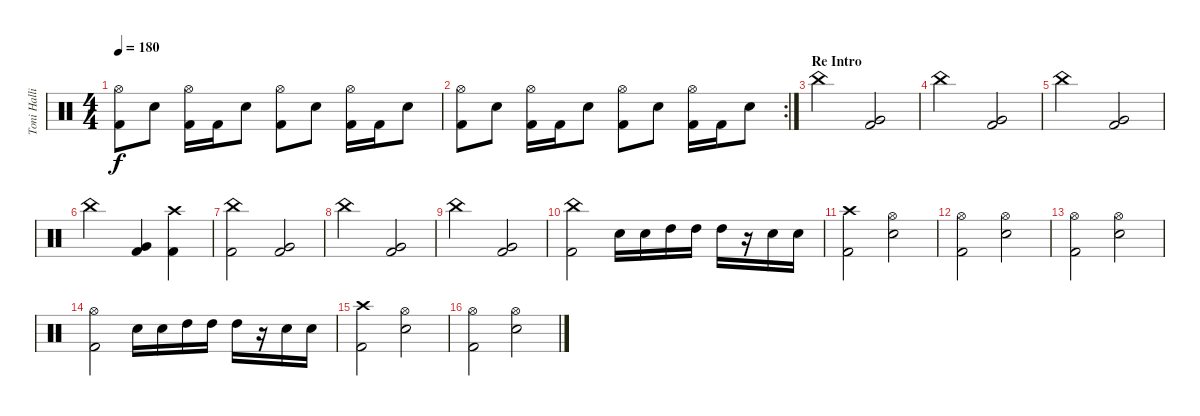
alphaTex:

\track ("Toni Hallio" "Toni Halli") {instrument percussion}
\staff {score}
\articulation defaults
\ts (4 4)
\tempo 180
\clef neutral
\ks c
("Hi-Hat (open)" "Kick (hit) 2").8{dy f} "Electric Snare (hit)".8 ("Hi-Hat (open)" "Kick (hit) 2").16 "Kick (hit) 2".16 "Electric Snare (hit)".8 ("Hi-Hat (open)" "Kick (hit) 2").8 "Electric Snare (hit)".8 ("Hi-Hat (open)" "Kick (hit) 2").16 "Kick (hit) 2".16 "Electric Snare (hit)".8 |
\rc 2
("Hi-Hat (open)" "Kick (hit) 2").8 "Electric Snare (hit)".8 ("Hi-Hat (open)" "Kick (hit) 2").16 "Kick (hit) 2".16 "Electric Snare (hit)".8 ("Hi-Hat (open)" "Kick (hit) 2").8 "Electric Snare (hit)".8 ("Hi-Hat (open)" "Kick (hit) 2").16 "Kick (hit) 2".16 "Electric Snare (hit)".8 |
\section ("" "Re Intro")
"China (hit)".2 ("Very Low Tom (hit)" "Kick (hit) 2").2 |
"China (hit)".2 ("Very Low Tom (hit)" "Kick (hit) 2").2 |
"China (hit)".2 ("Very Low Tom (hit)" "Kick (hit) 2").2 |
"China (hit)".2 ("Very Low Tom (hit)" "Kick (hit) 2").4 ("Crash high (hit)" "Kick (hit) 2").4 |
("China (hit)" "Kick (hit) 2").2 ("Very Low Tom (hit)" "Kick (hit) 2").2 |
"China (hit)".2 ("Very Low Tom (hit)" "Kick (hit) 2").2 |
"China (hit)".2 ("Very Low Tom (hit)" "Kick (hit) 2").2 |
("China (hit)" "Kick (hit) 2").2 "Electric Snare (hit)".16 "Electric Snare (hit)".16 "High Tom (hit)".16 "High Tom (hit)".16 "High Tom (hit)".16 r.16 "Electric Snare (hit)".16 "Electric Snare (hit)".16 |
("Crash high (hit)" "Kick (hit) 2").2 ("Hi-Hat (open)" "Electric Snare (hit)").2 |
("Hi-Hat (open)" "Kick (hit) 2").2 ("Hi-Hat (open)" "Electric Snare (hit)").2 |
("Hi-Hat (open)" "Kick (hit) 2").2 ("Hi-Hat (open)" "Electric Snare (hit)").2 |
("Hi-Hat (open)" "Kick (hit) 2").2 "Electric Snare (hit)".16 "Electric Snare (hit)".16 "High Tom (hit)".16 "High Tom (hit)".16 "High Tom (hit)".16 r.16 "Electric Snare (hit)".16 "Electric Snare (hit)".16 |
("Crash high (hit)" "Kick (hit) 2").2 ("Hi-Hat (open)" "Electric Snare (hit)").2 |
("Hi-Hat (open)" "Kick (hit) 2").2 ("Hi-Hat (open)" "Electric Snare (hit)").2
